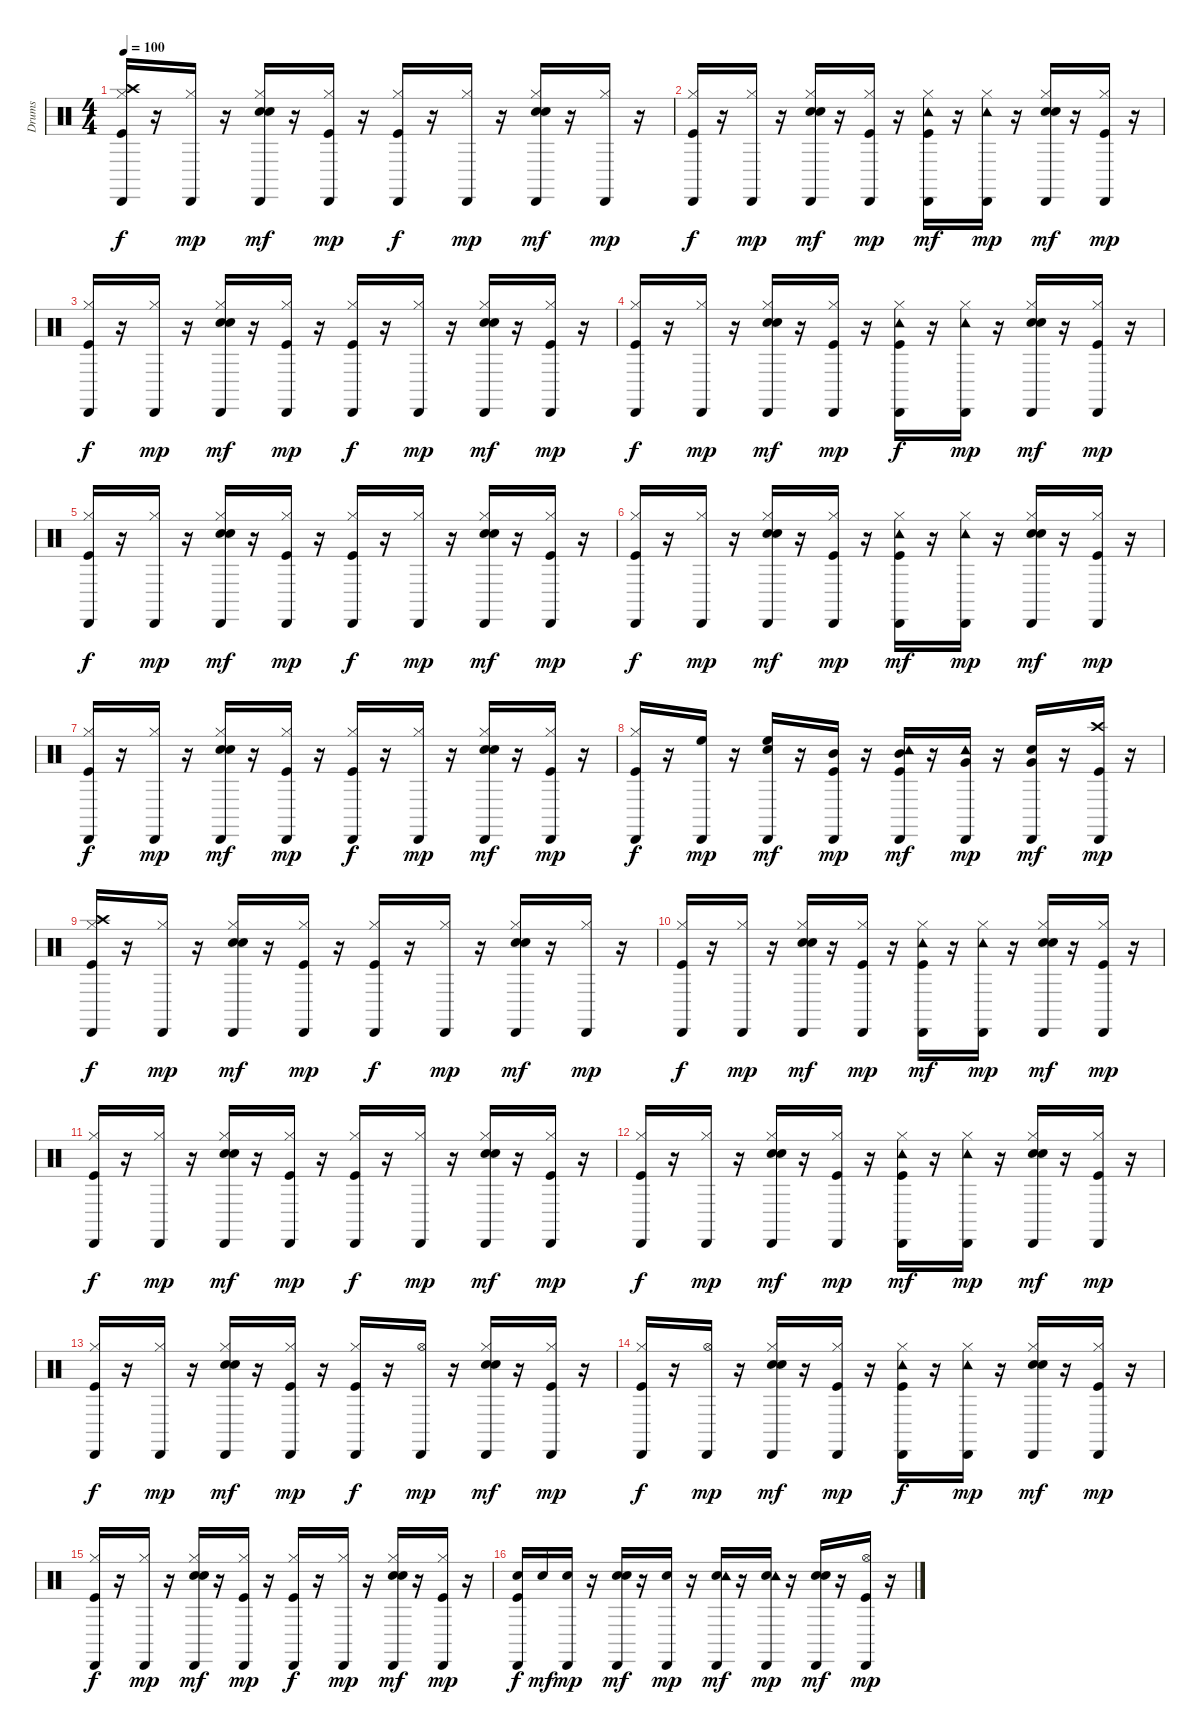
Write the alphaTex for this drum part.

\track ("Drums" "Drums") {instrument percussion}
\staff {score}
\articulation defaults
\ts (4 4)
\tempo 100
\clef neutral
\ks c
("Kick (hit)" "Hi-Hat (closed)" "Crash high (hit)" "Cabasa (hit)").16{dy f} r.16 ("Hi-Hat (closed)" "Cabasa (hit)").16{dy mp} r.16 ("Snare (hit) 2" "Hi-Hat (closed)" "Hand Clap (hit)" "Cabasa (hit)").16{dy mf} r.16 ("Kick (hit)" "Hi-Hat (closed)" "Cabasa (hit)").16{dy mp} r.16 ("Kick (hit)" "Hi-Hat (closed)" "Cabasa (hit)").16{dy f} r.16 ("Hi-Hat (closed)" "Cabasa (hit)").16{dy mp} r.16 ("Snare (hit) 2" "Hi-Hat (closed)" "Hand Clap (hit)" "Cabasa (hit)").16{dy mf} r.16 ("Hi-Hat (closed)" "Cabasa (hit)").16{dy mp} r.16 |
("Kick (hit)" "Hi-Hat (closed)" "Cabasa (hit)").16{dy f} r.16 ("Hi-Hat (closed)" "Cabasa (hit)").16{dy mp} r.16 ("Snare (hit) 2" "Hi-Hat (closed)" "Hand Clap (hit)" "Cabasa (hit)").16{dy mf} r.16 ("Kick (hit)" "Hi-Hat (closed)" "Cabasa (hit)").16{dy mp} r.16 ("Kick (hit)" "Hi-Hat (closed)" "Tambourine (hit)" "Cabasa (hit)").16{dy mf} r.16 ("Hi-Hat (closed)" "Tambourine (hit)" "Cabasa (hit)").16{dy mp} r.16 ("Snare (hit) 2" "Hi-Hat (closed)" "Hand Clap (hit)" "Cabasa (hit)").16{dy mf} r.16 ("Kick (hit)" "Hi-Hat (closed)" "Cabasa (hit)").16{dy mp} r.16 |
("Kick (hit)" "Hi-Hat (closed)" "Cabasa (hit)").16{dy f} r.16 ("Hi-Hat (closed)" "Cabasa (hit)").16{dy mp} r.16 ("Snare (hit) 2" "Hi-Hat (closed)" "Hand Clap (hit)" "Cabasa (hit)").16{dy mf} r.16 ("Kick (hit)" "Hi-Hat (closed)" "Cabasa (hit)").16{dy mp} r.16 ("Kick (hit)" "Hi-Hat (closed)" "Cabasa (hit)").16{dy f} r.16 ("Hi-Hat (closed)" "Cabasa (hit)").16{dy mp} r.16 ("Snare (hit) 2" "Hi-Hat (closed)" "Hand Clap (hit)" "Cabasa (hit)").16{dy mf} r.16 ("Kick (hit)" "Hi-Hat (closed)" "Cabasa (hit)").16{dy mp} r.16 |
("Kick (hit)" "Hi-Hat (closed)" "Cabasa (hit)").16{dy f} r.16 ("Hi-Hat (closed)" "Cabasa (hit)").16{dy mp} r.16 ("Snare (hit) 2" "Hi-Hat (closed)" "Hand Clap (hit)" "Cabasa (hit)").16{dy mf} r.16 ("Kick (hit)" "Hi-Hat (closed)" "Cabasa (hit)").16{dy mp} r.16 ("Kick (hit)" "Hi-Hat (closed)" "Tambourine (hit)" "Cabasa (hit)").16{dy f} r.16 ("Hi-Hat (closed)" "Tambourine (hit)" "Cabasa (hit)").16{dy mp} r.16 ("Snare (hit) 2" "Hi-Hat (closed)" "Hand Clap (hit)" "Cabasa (hit)").16{dy mf} r.16 ("Kick (hit)" "Hi-Hat (closed)" "Cabasa (hit)").16{dy mp} r.16 |
("Kick (hit)" "Hi-Hat (closed)" "Cabasa (hit)").16{dy f} r.16 ("Hi-Hat (closed)" "Cabasa (hit)").16{dy mp} r.16 ("Snare (hit) 2" "Hi-Hat (closed)" "Hand Clap (hit)" "Cabasa (hit)").16{dy mf} r.16 ("Kick (hit)" "Hi-Hat (closed)" "Cabasa (hit)").16{dy mp} r.16 ("Kick (hit)" "Hi-Hat (closed)" "Cabasa (hit)").16{dy f} r.16 ("Hi-Hat (closed)" "Cabasa (hit)").16{dy mp} r.16 ("Snare (hit) 2" "Hi-Hat (closed)" "Hand Clap (hit)" "Cabasa (hit)").16{dy mf} r.16 ("Kick (hit)" "Hi-Hat (closed)" "Cabasa (hit)").16{dy mp} r.16 |
("Kick (hit)" "Hi-Hat (closed)" "Cabasa (hit)").16{dy f} r.16 ("Hi-Hat (closed)" "Cabasa (hit)").16{dy mp} r.16 ("Snare (hit) 2" "Hi-Hat (closed)" "Hand Clap (hit)" "Cabasa (hit)").16{dy mf} r.16 ("Kick (hit)" "Hi-Hat (closed)" "Cabasa (hit)").16{dy mp} r.16 ("Kick (hit)" "Hi-Hat (closed)" "Tambourine (hit)" "Cabasa (hit)").16{dy mf} r.16 ("Hi-Hat (closed)" "Tambourine (hit)" "Cabasa (hit)").16{dy mp} r.16 ("Snare (hit) 2" "Hi-Hat (closed)" "Hand Clap (hit)" "Cabasa (hit)").16{dy mf} r.16 ("Kick (hit)" "Hi-Hat (closed)" "Cabasa (hit)").16{dy mp} r.16 |
("Kick (hit)" "Hi-Hat (closed)" "Cabasa (hit)").16{dy f} r.16 ("Hi-Hat (closed)" "Cabasa (hit)").16{dy mp} r.16 ("Snare (hit) 2" "Hi-Hat (closed)" "Hand Clap (hit)" "Cabasa (hit)").16{dy mf} r.16 ("Kick (hit)" "Hi-Hat (closed)" "Cabasa (hit)").16{dy mp} r.16 ("Kick (hit)" "Hi-Hat (closed)" "Cabasa (hit)").16{dy f} r.16 ("Hi-Hat (closed)" "Cabasa (hit)").16{dy mp} r.16 ("Snare (hit) 2" "Hi-Hat (closed)" "Hand Clap (hit)" "Cabasa (hit)").16{dy mf} r.16 ("Kick (hit)" "Hi-Hat (closed)" "Cabasa (hit)").16{dy mp} r.16 |
("Kick (hit)" "Hi-Hat (closed)" "Cabasa (hit)").16{dy f} r.16 ("High Floor Tom (hit)" "Cabasa (hit)").16{dy mp} r.16 ("High Floor Tom (hit)" "Hand Clap (hit)" "Cabasa (hit)").16{dy mf} r.16 ("Kick (hit)" "Mid Tom (hit)" "Cabasa (hit)").16{dy mp} r.16 ("Kick (hit)" "Mid Tom (hit)" "Tambourine (hit)" "Cabasa (hit)").16{dy mf} r.16 ("Very Low Tom (hit)" "Tambourine (hit)" "Cabasa (hit)").16{dy mp} r.16 ("Very Low Tom (hit)" "Hand Clap (hit)" "Cabasa (hit)").16{dy mf} r.16 ("Kick (hit)" "Crash high (hit)" "Cabasa (hit)").16{dy mp} r.16 |
("Kick (hit)" "Hi-Hat (closed)" "Crash high (hit)" "Cabasa (hit)").16{dy f} r.16 ("Hi-Hat (closed)" "Cabasa (hit)").16{dy mp} r.16 ("Snare (hit) 2" "Hi-Hat (closed)" "Hand Clap (hit)" "Cabasa (hit)").16{dy mf} r.16 ("Kick (hit)" "Hi-Hat (closed)" "Cabasa (hit)").16{dy mp} r.16 ("Kick (hit)" "Hi-Hat (closed)" "Cabasa (hit)").16{dy f} r.16 ("Hi-Hat (closed)" "Cabasa (hit)").16{dy mp} r.16 ("Snare (hit) 2" "Hi-Hat (closed)" "Hand Clap (hit)" "Cabasa (hit)").16{dy mf} r.16 ("Hi-Hat (closed)" "Cabasa (hit)").16{dy mp} r.16 |
("Kick (hit)" "Hi-Hat (closed)" "Cabasa (hit)").16{dy f} r.16 ("Hi-Hat (closed)" "Cabasa (hit)").16{dy mp} r.16 ("Snare (hit) 2" "Hi-Hat (closed)" "Hand Clap (hit)" "Cabasa (hit)").16{dy mf} r.16 ("Kick (hit)" "Hi-Hat (closed)" "Cabasa (hit)").16{dy mp} r.16 ("Kick (hit)" "Hi-Hat (closed)" "Tambourine (hit)" "Cabasa (hit)").16{dy mf} r.16 ("Hi-Hat (closed)" "Tambourine (hit)" "Cabasa (hit)").16{dy mp} r.16 ("Snare (hit) 2" "Hi-Hat (closed)" "Hand Clap (hit)" "Cabasa (hit)").16{dy mf} r.16 ("Kick (hit)" "Hi-Hat (closed)" "Cabasa (hit)").16{dy mp} r.16 |
("Kick (hit)" "Hi-Hat (closed)" "Cabasa (hit)").16{dy f} r.16 ("Hi-Hat (closed)" "Cabasa (hit)").16{dy mp} r.16 ("Snare (hit) 2" "Hi-Hat (closed)" "Hand Clap (hit)" "Cabasa (hit)").16{dy mf} r.16 ("Kick (hit)" "Hi-Hat (closed)" "Cabasa (hit)").16{dy mp} r.16 ("Kick (hit)" "Hi-Hat (closed)" "Cabasa (hit)").16{dy f} r.16 ("Hi-Hat (closed)" "Cabasa (hit)").16{dy mp} r.16 ("Snare (hit) 2" "Hi-Hat (closed)" "Hand Clap (hit)" "Cabasa (hit)").16{dy mf} r.16 ("Kick (hit)" "Hi-Hat (closed)" "Cabasa (hit)").16{dy mp} r.16 |
("Kick (hit)" "Hi-Hat (closed)" "Cabasa (hit)").16{dy f} r.16 ("Hi-Hat (closed)" "Cabasa (hit)").16{dy mp} r.16 ("Snare (hit) 2" "Hi-Hat (closed)" "Hand Clap (hit)" "Cabasa (hit)").16{dy mf} r.16 ("Kick (hit)" "Hi-Hat (closed)" "Cabasa (hit)").16{dy mp} r.16 ("Kick (hit)" "Hi-Hat (closed)" "Tambourine (hit)" "Cabasa (hit)").16{dy mf} r.16 ("Hi-Hat (closed)" "Tambourine (hit)" "Cabasa (hit)").16{dy mp} r.16 ("Snare (hit) 2" "Hi-Hat (closed)" "Hand Clap (hit)" "Cabasa (hit)").16{dy mf} r.16 ("Kick (hit)" "Hi-Hat (closed)" "Cabasa (hit)").16{dy mp} r.16 |
("Kick (hit)" "Hi-Hat (closed)" "Cabasa (hit)").16{dy f} r.16 ("Hi-Hat (closed)" "Cabasa (hit)").16{dy mp} r.16 ("Snare (hit) 2" "Hi-Hat (closed)" "Hand Clap (hit)" "Cabasa (hit)").16{dy mf} r.16 ("Kick (hit)" "Hi-Hat (closed)" "Cabasa (hit)").16{dy mp} r.16 ("Kick (hit)" "Hi-Hat (closed)" "Cabasa (hit)").16{dy f} r.16 ("Hi-Hat (open)" "Cabasa (hit)").16{dy mp} r.16 ("Snare (hit) 2" "Hi-Hat (closed)" "Hand Clap (hit)" "Cabasa (hit)").16{dy mf} r.16 ("Kick (hit)" "Hi-Hat (closed)" "Cabasa (hit)").16{dy mp} r.16 |
("Kick (hit)" "Hi-Hat (closed)" "Cabasa (hit)").16{dy f} r.16 ("Hi-Hat (open)" "Cabasa (hit)").16{dy mp} r.16 ("Snare (hit) 2" "Hi-Hat (closed)" "Hand Clap (hit)" "Cabasa (hit)").16{dy mf} r.16 ("Kick (hit)" "Hi-Hat (closed)" "Cabasa (hit)").16{dy mp} r.16 ("Kick (hit)" "Hi-Hat (closed)" "Tambourine (hit)" "Cabasa (hit)").16{dy f} r.16 ("Hi-Hat (closed)" "Tambourine (hit)" "Cabasa (hit)").16{dy mp} r.16 ("Snare (hit) 2" "Hi-Hat (closed)" "Hand Clap (hit)" "Cabasa (hit)").16{dy mf} r.16 ("Kick (hit)" "Hi-Hat (closed)" "Cabasa (hit)").16{dy mp} r.16 |
("Kick (hit)" "Hi-Hat (closed)" "Cabasa (hit)").16{dy f} r.16 ("Hi-Hat (closed)" "Cabasa (hit)").16{dy mp} r.16 ("Snare (hit) 2" "Hi-Hat (closed)" "Hand Clap (hit)" "Cabasa (hit)").16{dy mf} r.16 ("Kick (hit)" "Hi-Hat (closed)" "Cabasa (hit)").16{dy mp} r.16 ("Kick (hit)" "Hi-Hat (closed)" "Cabasa (hit)").16{dy f} r.16 ("Hi-Hat (closed)" "Cabasa (hit)").16{dy mp} r.16 ("Snare (hit) 2" "Hi-Hat (closed)" "Hand Clap (hit)" "Cabasa (hit)").16{dy mf} r.16 ("Kick (hit)" "Hi-Hat (closed)" "Cabasa (hit)").16{dy mp} r.16 |
("Kick (hit)" "Snare (hit) 2" "Cabasa (hit)").16{dy f} "Snare (hit) 2".16{dy mf} ("Snare (hit) 2" "Cabasa (hit)").16{dy mp} r.16 ("Snare (hit) 2" "Hand Clap (hit)" "Cabasa (hit)").16{dy mf} r.16 ("Snare (hit) 2" "Cabasa (hit)").16{dy mp} r.16 ("Snare (hit) 2" "Tambourine (hit)" "Cabasa (hit)").16{dy mf} r.16 ("Snare (hit) 2" "Tambourine (hit)" "Cabasa (hit)").16{dy mp} r.16 ("Snare (hit) 2" "Hand Clap (hit)" "Cabasa (hit)").16{dy mf} r.16 ("Kick (hit)" "Hi-Hat (open)" "Cabasa (hit)").16{dy mp} r.16
